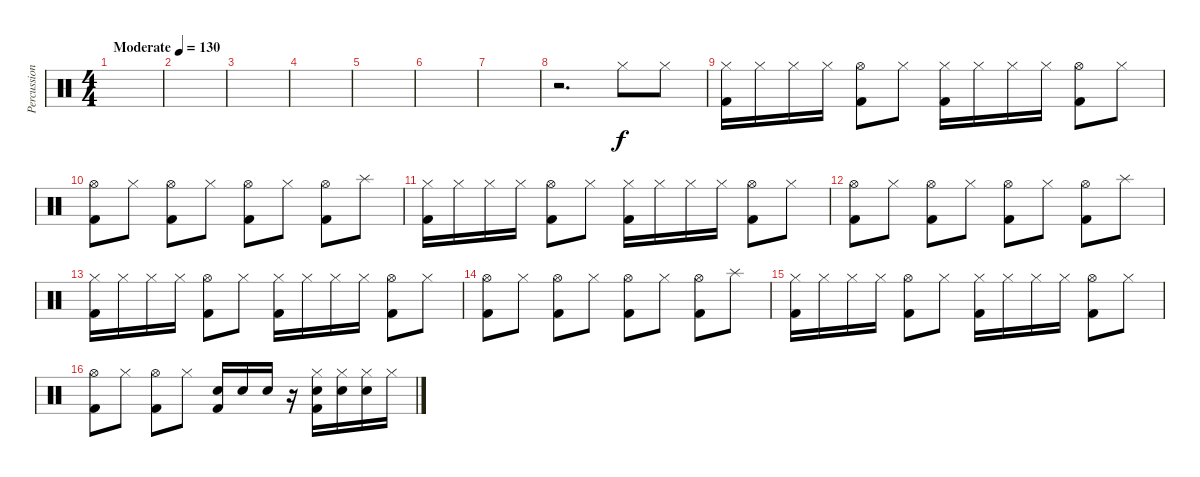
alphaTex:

\track ("Percussion" "Percussion") {instrument percussion}
\staff {score}
\articulation defaults
\ts (4 4)
\tempo (130 "Moderate")
\clef neutral
\ks c
|
|
|
|
|
|
|
r.2{d} "Hi-Hat (closed)".8 "Hi-Hat (closed)".8 |
("Hi-Hat (closed)" "Kick (hit) 2").16 "Hi-Hat (closed)".16 "Hi-Hat (closed)".16 "Hi-Hat (closed)".16 ("Hi-Hat (open)" "Kick (hit) 2").8 "Hi-Hat (closed)".8 ("Hi-Hat (closed)" "Kick (hit) 2").16 "Hi-Hat (closed)".16 "Hi-Hat (closed)".16 "Hi-Hat (closed)".16 ("Hi-Hat (open)" "Kick (hit) 2").8 "Hi-Hat (closed)".8 |
("Hi-Hat (open)" "Kick (hit) 2").8 "Hi-Hat (closed)".8 ("Hi-Hat (open)" "Kick (hit) 2").8 "Hi-Hat (closed)".8 ("Hi-Hat (open)" "Kick (hit) 2").8 "Hi-Hat (closed)".8 ("Hi-Hat (open)" "Kick (hit) 2").8 "Splash (hit)".8 |
("Hi-Hat (closed)" "Kick (hit) 2").16 "Hi-Hat (closed)".16 "Hi-Hat (closed)".16 "Hi-Hat (closed)".16 ("Hi-Hat (open)" "Kick (hit) 2").8 "Hi-Hat (closed)".8 ("Hi-Hat (closed)" "Kick (hit) 2").16 "Hi-Hat (closed)".16 "Hi-Hat (closed)".16 "Hi-Hat (closed)".16 ("Hi-Hat (open)" "Kick (hit) 2").8 "Hi-Hat (closed)".8 |
("Hi-Hat (open)" "Kick (hit) 2").8 "Hi-Hat (closed)".8 ("Hi-Hat (open)" "Kick (hit) 2").8 "Hi-Hat (closed)".8 ("Hi-Hat (open)" "Kick (hit) 2").8 "Hi-Hat (closed)".8 ("Hi-Hat (open)" "Kick (hit) 2").8 "Splash (hit)".8 |
("Hi-Hat (closed)" "Kick (hit) 2").16 "Hi-Hat (closed)".16 "Hi-Hat (closed)".16 "Hi-Hat (closed)".16 ("Hi-Hat (open)" "Kick (hit) 2").8 "Hi-Hat (closed)".8 ("Hi-Hat (closed)" "Kick (hit) 2").16 "Hi-Hat (closed)".16 "Hi-Hat (closed)".16 "Hi-Hat (closed)".16 ("Hi-Hat (open)" "Kick (hit) 2").8 "Hi-Hat (closed)".8 |
("Hi-Hat (open)" "Kick (hit) 2").8 "Hi-Hat (closed)".8 ("Hi-Hat (open)" "Kick (hit) 2").8 "Hi-Hat (closed)".8 ("Hi-Hat (open)" "Kick (hit) 2").8 "Hi-Hat (closed)".8 ("Hi-Hat (open)" "Kick (hit) 2").8 "Splash (hit)".8 |
("Hi-Hat (closed)" "Kick (hit) 2").16 "Hi-Hat (closed)".16 "Hi-Hat (closed)".16 "Hi-Hat (closed)".16 ("Hi-Hat (open)" "Kick (hit) 2").8 "Hi-Hat (closed)".8 ("Hi-Hat (closed)" "Kick (hit) 2").16 "Hi-Hat (closed)".16 "Hi-Hat (closed)".16 "Hi-Hat (closed)".16 ("Hi-Hat (open)" "Kick (hit) 2").8 "Hi-Hat (closed)".8 |
("Hi-Hat (open)" "Kick (hit) 2").8 "Hi-Hat (closed)".8 ("Hi-Hat (open)" "Kick (hit) 2").8 "Hi-Hat (closed)".8 ("Snare (hit) 2" "Kick (hit) 2").16 "Snare (hit) 2".16 "Snare (hit) 2".16 r.16 ("Snare (hit) 2" "Hi-Hat (closed)" "Kick (hit) 2").16 ("Snare (hit) 2" "Hi-Hat (closed)").16 ("Snare (hit) 2" "Hi-Hat (closed)").16 "Hi-Hat (closed)".16
